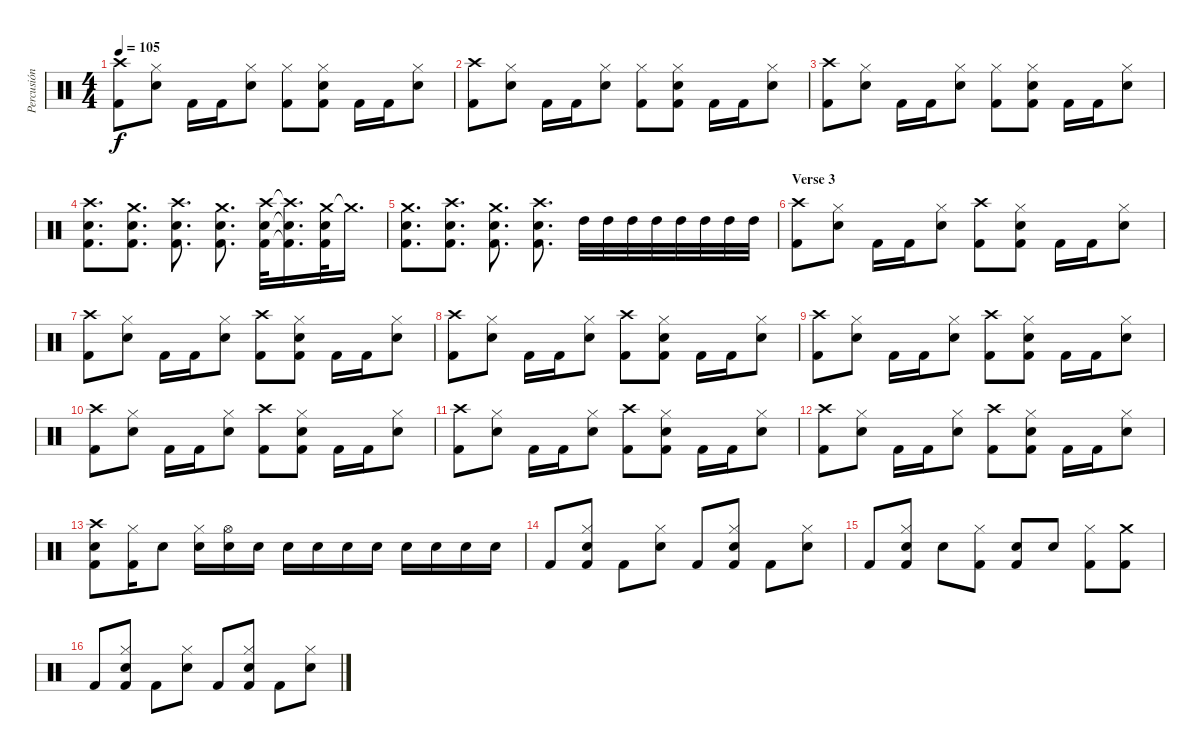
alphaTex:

\track ("Percusión" "Percusión") {instrument percussion}
\staff {score}
\articulation defaults
\ts (4 4)
\tempo 105
\clef neutral
\ks c
("Crash high (hit)" "Kick (hit) 2").8{dy f} ("Hi-Hat (closed)" "Snare (hit) 2").8 "Kick (hit) 2".16 "Kick (hit) 2".16 ("Hi-Hat (closed)" "Snare (hit) 2").8 ("Hi-Hat (closed)" "Kick (hit) 2").8 ("Hi-Hat (closed)" "Snare (hit) 2" "Kick (hit) 2").8 "Kick (hit) 2".16 "Kick (hit) 2".16 ("Hi-Hat (closed)" "Snare (hit) 2").8 |
("Crash high (hit)" "Kick (hit) 2").8 ("Hi-Hat (closed)" "Snare (hit) 2").8 "Kick (hit) 2".16 "Kick (hit) 2".16 ("Hi-Hat (closed)" "Snare (hit) 2").8 ("Hi-Hat (closed)" "Kick (hit) 2").8 ("Hi-Hat (closed)" "Snare (hit) 2" "Kick (hit) 2").8 "Kick (hit) 2".16 "Kick (hit) 2".16 ("Hi-Hat (closed)" "Snare (hit) 2").8 |
("Crash high (hit)" "Kick (hit) 2").8 ("Hi-Hat (closed)" "Snare (hit) 2").8 "Kick (hit) 2".16 "Kick (hit) 2".16 ("Hi-Hat (closed)" "Snare (hit) 2").8 ("Hi-Hat (closed)" "Kick (hit) 2").8 ("Hi-Hat (closed)" "Snare (hit) 2" "Kick (hit) 2").8 "Kick (hit) 2".16 "Kick (hit) 2".16 ("Hi-Hat (closed)" "Snare (hit) 2").8 |
("Crash high (hit)" "Snare (hit) 2" "Kick (hit) 2").8{d} ("Crash medium (hit)" "Snare (hit) 2" "Kick (hit) 2").8{d} ("Crash high (hit)" "Snare (hit) 2" "Kick (hit) 2").8{d} ("Crash medium (hit)" "Snare (hit) 2" "Kick (hit) 2").8{d} ("Crash high (hit)" "Snare (hit) 2" "Kick (hit) 2").32 ("Crash high (hit)"{t} "Snare (hit) 2"{t} "Kick (hit) 2"{t}).16{d} ("Crash medium (hit)" "Snare (hit) 2" "Kick (hit) 2").32 "Crash medium (hit)"{t}.16{d} |
("Crash medium (hit)" "Snare (hit) 2" "Kick (hit) 2").8{d} ("Crash high (hit)" "Snare (hit) 2" "Kick (hit) 2").8{d} ("Crash medium (hit)" "Snare (hit) 2" "Kick (hit) 2").8{d} ("Crash high (hit)" "Snare (hit) 2" "Kick (hit) 2").8{d} "High Tom (hit)".32 "High Tom (hit)".32 "High Tom (hit)".32 "High Tom (hit)".32 "High Tom (hit)".32 "High Tom (hit)".32 "High Tom (hit)".32 "High Tom (hit)".32 |
\section ("" "Verse 3")
("Crash high (hit)" "Kick (hit) 2").8 ("Hi-Hat (closed)" "Snare (hit) 2").8 "Kick (hit) 2".16 "Kick (hit) 2".16 ("Hi-Hat (closed)" "Snare (hit) 2").8 ("Crash high (hit)" "Kick (hit) 2").8 ("Hi-Hat (closed)" "Snare (hit) 2" "Kick (hit) 2").8 "Kick (hit) 2".16 "Kick (hit) 2".16 ("Hi-Hat (closed)" "Snare (hit) 2").8 |
("Crash high (hit)" "Kick (hit) 2").8 ("Hi-Hat (closed)" "Snare (hit) 2").8 "Kick (hit) 2".16 "Kick (hit) 2".16 ("Hi-Hat (closed)" "Snare (hit) 2").8 ("Crash high (hit)" "Kick (hit) 2").8 ("Hi-Hat (closed)" "Snare (hit) 2" "Kick (hit) 2").8 "Kick (hit) 2".16 "Kick (hit) 2".16 ("Hi-Hat (closed)" "Snare (hit) 2").8 |
("Crash high (hit)" "Kick (hit) 2").8 ("Hi-Hat (closed)" "Snare (hit) 2").8 "Kick (hit) 2".16 "Kick (hit) 2".16 ("Hi-Hat (closed)" "Snare (hit) 2").8 ("Crash high (hit)" "Kick (hit) 2").8 ("Hi-Hat (closed)" "Snare (hit) 2" "Kick (hit) 2").8 "Kick (hit) 2".16 "Kick (hit) 2".16 ("Hi-Hat (closed)" "Snare (hit) 2").8 |
("Crash high (hit)" "Kick (hit) 2").8 ("Hi-Hat (closed)" "Snare (hit) 2").8 "Kick (hit) 2".16 "Kick (hit) 2".16 ("Hi-Hat (closed)" "Snare (hit) 2").8 ("Crash high (hit)" "Kick (hit) 2").8 ("Hi-Hat (closed)" "Snare (hit) 2" "Kick (hit) 2").8 "Kick (hit) 2".16 "Kick (hit) 2".16 ("Hi-Hat (closed)" "Snare (hit) 2").8 |
("Crash high (hit)" "Kick (hit) 2").8 ("Hi-Hat (closed)" "Snare (hit) 2").8 "Kick (hit) 2".16 "Kick (hit) 2".16 ("Hi-Hat (closed)" "Snare (hit) 2").8 ("Crash high (hit)" "Kick (hit) 2").8 ("Hi-Hat (closed)" "Snare (hit) 2" "Kick (hit) 2").8 "Kick (hit) 2".16 "Kick (hit) 2".16 ("Hi-Hat (closed)" "Snare (hit) 2").8 |
("Crash high (hit)" "Kick (hit) 2").8 ("Hi-Hat (closed)" "Snare (hit) 2").8 "Kick (hit) 2".16 "Kick (hit) 2".16 ("Hi-Hat (closed)" "Snare (hit) 2").8 ("Crash high (hit)" "Kick (hit) 2").8 ("Hi-Hat (closed)" "Snare (hit) 2" "Kick (hit) 2").8 "Kick (hit) 2".16 "Kick (hit) 2".16 ("Hi-Hat (closed)" "Snare (hit) 2").8 |
("Crash high (hit)" "Kick (hit) 2").8 ("Hi-Hat (closed)" "Snare (hit) 2").8 "Kick (hit) 2".16 "Kick (hit) 2".16 ("Hi-Hat (closed)" "Snare (hit) 2").8 ("Crash high (hit)" "Kick (hit) 2").8 ("Hi-Hat (closed)" "Snare (hit) 2" "Kick (hit) 2").8 "Kick (hit) 2".16 "Kick (hit) 2".16 ("Hi-Hat (closed)" "Snare (hit) 2").8 |
("Crash high (hit)" "Snare (hit) 2" "Kick (hit) 2").8 ("Hi-Hat (closed)" "Kick (hit) 2").16 "Snare (hit) 2".8 ("Hi-Hat (closed)" "Snare (hit) 2").16 ("Hi-Hat (open)" "Snare (hit) 2").16 "Snare (hit) 2".16 "Snare (hit) 2".16 "Snare (hit) 2".16 "Snare (hit) 2".16 "Snare (hit) 2".16 "Snare (hit) 2".16 "Snare (hit) 2".16 "Snare (hit) 2".16 "Snare (hit) 2".16 |
"Kick (hit) 2".8 ("Hi-Hat (closed)" "Snare (hit) 2" "Kick (hit) 2").8 "Kick (hit) 2".8 ("Hi-Hat (closed)" "Snare (hit) 2").8 "Kick (hit) 2".8 ("Hi-Hat (closed)" "Snare (hit) 2" "Kick (hit) 2").8 "Kick (hit) 2".8 ("Hi-Hat (closed)" "Snare (hit) 2").8 |
"Kick (hit) 2".8 ("Hi-Hat (closed)" "Snare (hit) 2" "Kick (hit) 2").8 "Snare (hit) 2".8 ("Hi-Hat (closed)" "Kick (hit) 2").8 ("Snare (hit) 2" "Kick (hit) 2").8 "Snare (hit) 2".8 ("Hi-Hat (closed)" "Kick (hit) 2").8 ("Crash medium (hit)" "Kick (hit) 2").8 |
"Kick (hit) 2".8 ("Hi-Hat (closed)" "Snare (hit) 2" "Kick (hit) 2").8 "Kick (hit) 2".8 ("Hi-Hat (closed)" "Snare (hit) 2").8 "Kick (hit) 2".8 ("Hi-Hat (closed)" "Snare (hit) 2" "Kick (hit) 2").8 "Kick (hit) 2".8 ("Hi-Hat (closed)" "Snare (hit) 2").8
